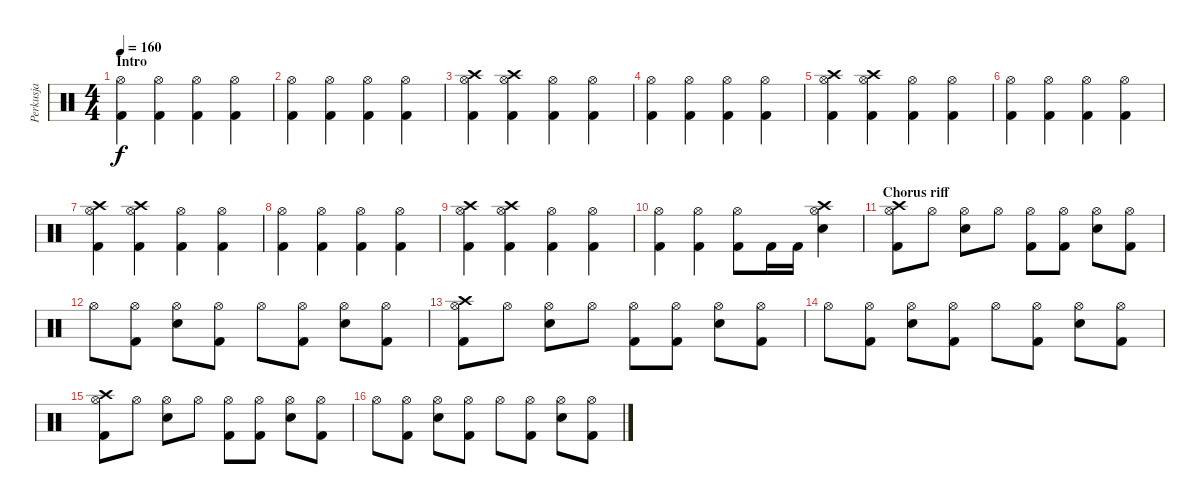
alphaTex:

\track ("Perkusja" "Perkusja") {instrument percussion}
\staff {score}
\articulation defaults
\ts (4 4)
\section ("" "Intro")
\tempo 160
\clef neutral
\ks c
("Hi-Hat (open)" "Kick (hit) 2").4{dy f} ("Hi-Hat (open)" "Kick (hit) 2").4 ("Hi-Hat (open)" "Kick (hit) 2").4 ("Hi-Hat (open)" "Kick (hit) 2").4 |
("Hi-Hat (open)" "Kick (hit) 2").4 ("Hi-Hat (open)" "Kick (hit) 2").4 ("Hi-Hat (open)" "Kick (hit) 2").4 ("Hi-Hat (open)" "Kick (hit) 2").4 |
("Hi-Hat (open)" "Kick (hit) 2" "Crash high (hit)").4 ("Hi-Hat (open)" "Kick (hit) 2" "Crash high (hit)").4 ("Hi-Hat (open)" "Kick (hit) 2").4 ("Hi-Hat (open)" "Kick (hit) 2").4 |
("Hi-Hat (open)" "Kick (hit) 2").4 ("Hi-Hat (open)" "Kick (hit) 2").4 ("Hi-Hat (open)" "Kick (hit) 2").4 ("Hi-Hat (open)" "Kick (hit) 2").4 |
("Hi-Hat (open)" "Kick (hit) 2" "Crash high (hit)").4 ("Hi-Hat (open)" "Kick (hit) 2" "Crash high (hit)").4 ("Hi-Hat (open)" "Kick (hit) 2").4 ("Hi-Hat (open)" "Kick (hit) 2").4 |
("Hi-Hat (open)" "Kick (hit) 2").4 ("Hi-Hat (open)" "Kick (hit) 2").4 ("Hi-Hat (open)" "Kick (hit) 2").4 ("Hi-Hat (open)" "Kick (hit) 2").4 |
("Hi-Hat (open)" "Kick (hit) 2" "Crash high (hit)").4 ("Hi-Hat (open)" "Kick (hit) 2" "Crash high (hit)").4 ("Hi-Hat (open)" "Kick (hit) 2").4 ("Hi-Hat (open)" "Kick (hit) 2").4 |
("Hi-Hat (open)" "Kick (hit) 2").4 ("Hi-Hat (open)" "Kick (hit) 2").4 ("Hi-Hat (open)" "Kick (hit) 2").4 ("Hi-Hat (open)" "Kick (hit) 2").4 |
("Hi-Hat (open)" "Kick (hit) 2" "Crash high (hit)").4 ("Hi-Hat (open)" "Kick (hit) 2" "Crash high (hit)").4 ("Hi-Hat (open)" "Kick (hit) 2").4 ("Hi-Hat (open)" "Kick (hit) 2").4 |
("Hi-Hat (open)" "Kick (hit) 2").4 ("Hi-Hat (open)" "Kick (hit) 2").4 ("Hi-Hat (open)" "Kick (hit) 2").8 "Kick (hit) 2".16 "Kick (hit) 2".16 ("Hi-Hat (open)" "Snare (hit) 2" "Crash high (hit)").4 |
\section ("" "Chorus riff")
("Hi-Hat (open)" "Kick (hit) 2" "Crash high (hit)").8 "Hi-Hat (open)".8 ("Hi-Hat (open)" "Snare (hit) 2").8 "Hi-Hat (open)".8 ("Hi-Hat (open)" "Kick (hit) 2").8 ("Hi-Hat (open)" "Kick (hit) 2").8 ("Hi-Hat (open)" "Snare (hit) 2").8 ("Hi-Hat (open)" "Kick (hit) 2").8 |
"Hi-Hat (open)".8 ("Hi-Hat (open)" "Kick (hit) 2").8 ("Hi-Hat (open)" "Snare (hit) 2").8 ("Hi-Hat (open)" "Kick (hit) 2").8 "Hi-Hat (open)".8 ("Hi-Hat (open)" "Kick (hit) 2").8 ("Hi-Hat (open)" "Snare (hit) 2").8 ("Hi-Hat (open)" "Kick (hit) 2").8 |
("Hi-Hat (open)" "Kick (hit) 2" "Crash high (hit)").8 "Hi-Hat (open)".8 ("Hi-Hat (open)" "Snare (hit) 2").8 "Hi-Hat (open)".8 ("Hi-Hat (open)" "Kick (hit) 2").8 ("Hi-Hat (open)" "Kick (hit) 2").8 ("Hi-Hat (open)" "Snare (hit) 2").8 ("Hi-Hat (open)" "Kick (hit) 2").8 |
"Hi-Hat (open)".8 ("Hi-Hat (open)" "Kick (hit) 2").8 ("Hi-Hat (open)" "Snare (hit) 2").8 ("Hi-Hat (open)" "Kick (hit) 2").8 "Hi-Hat (open)".8 ("Hi-Hat (open)" "Kick (hit) 2").8 ("Hi-Hat (open)" "Snare (hit) 2").8 ("Hi-Hat (open)" "Kick (hit) 2").8 |
("Hi-Hat (open)" "Kick (hit) 2" "Crash high (hit)").8 "Hi-Hat (open)".8 ("Hi-Hat (open)" "Snare (hit) 2").8 "Hi-Hat (open)".8 ("Hi-Hat (open)" "Kick (hit) 2").8 ("Hi-Hat (open)" "Kick (hit) 2").8 ("Hi-Hat (open)" "Snare (hit) 2").8 ("Hi-Hat (open)" "Kick (hit) 2").8 |
"Hi-Hat (open)".8 ("Hi-Hat (open)" "Kick (hit) 2").8 ("Hi-Hat (open)" "Snare (hit) 2").8 ("Hi-Hat (open)" "Kick (hit) 2").8 "Hi-Hat (open)".8 ("Hi-Hat (open)" "Kick (hit) 2").8 ("Hi-Hat (open)" "Snare (hit) 2").8 ("Hi-Hat (open)" "Kick (hit) 2").8
